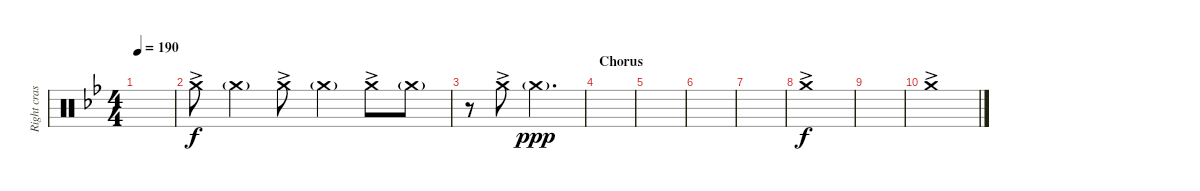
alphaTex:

\track ("Right crash" "Right cras") {instrument percussion}
\staff {score}
\articulation defaults
\ts (4 4)
\tempo 190
\clef neutral
\ks bb
|
"Crash medium (hit)"{ac}.8 "Crash medium (hit)"{g}.4 "Crash medium (hit)"{ac}.8 "Crash medium (hit)"{g}.4 "Crash medium (hit)"{ac}.8 "Crash medium (hit)"{g}.8 |
r.8 "Crash medium (hit)"{ac}.8 "Crash medium (hit)"{g}.2{d dy ppp} |
\section ("" "Chorus")
|
|
|
|
"Crash medium (hit)"{ac}.1{dy f} |
|
"Crash medium (hit)"{ac}.1
